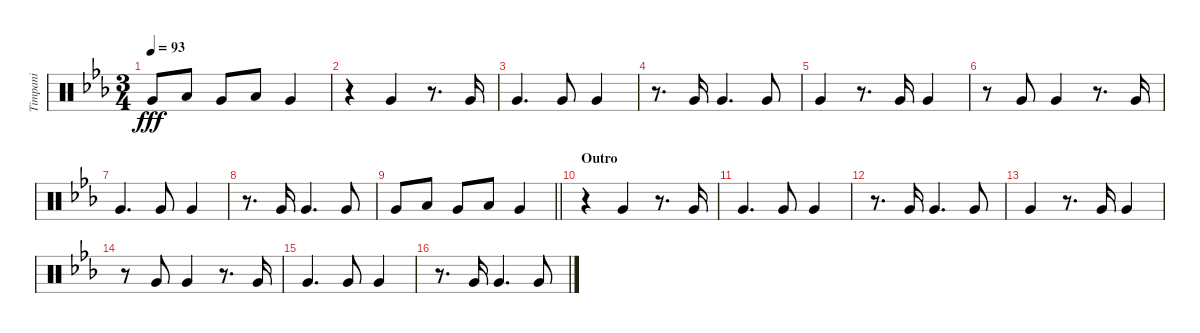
\track ("Timpani" "Timpani") {instrument percussion}
\staff {score}
\articulation defaults
\ts (3 4)
\tempo 93
\clef neutral
\ks cminor "Very Low Tom (hit)".8{dy fff} "Low Floor Tom (hit)".8 "Very Low Tom (hit)".8 "Low Floor Tom (hit)".8 "Very Low Tom (hit)".4
|
r.4 "Very Low Tom (hit)".4 r.8{d} "Very Low Tom (hit)".16 |
"Very Low Tom (hit)".4{d} "Very Low Tom (hit)".8 "Very Low Tom (hit)".4 |
r.8{d} "Very Low Tom (hit)".16 "Very Low Tom (hit)".4{d} "Very Low Tom (hit)".8 |
"Very Low Tom (hit)".4 r.8{d} "Very Low Tom (hit)".16 "Very Low Tom (hit)".4 |
r.8 "Very Low Tom (hit)".8 "Very Low Tom (hit)".4 r.8{d} "Very Low Tom (hit)".16 |
"Very Low Tom (hit)".4{d} "Very Low Tom (hit)".8 "Very Low Tom (hit)".4 |
r.8{d} "Very Low Tom (hit)".16 "Very Low Tom (hit)".4{d} "Very Low Tom (hit)".8 |
\barLineRight lightlight "Very Low Tom (hit)".8 "Low Floor Tom (hit)".8 "Very Low Tom (hit)".8 "Low Floor Tom (hit)".8 "Very Low Tom (hit)".4
|
\section ("" "Outro")
r.4 "Very Low Tom (hit)".4 r.8{d} "Very Low Tom (hit)".16 |
"Very Low Tom (hit)".4{d} "Very Low Tom (hit)".8 "Very Low Tom (hit)".4 |
r.8{d} "Very Low Tom (hit)".16 "Very Low Tom (hit)".4{d} "Very Low Tom (hit)".8 |
"Very Low Tom (hit)".4 r.8{d} "Very Low Tom (hit)".16 "Very Low Tom (hit)".4 |
r.8 "Very Low Tom (hit)".8 "Very Low Tom (hit)".4 r.8{d} "Very Low Tom (hit)".16 |
"Very Low Tom (hit)".4{d} "Very Low Tom (hit)".8 "Very Low Tom (hit)".4 |
r.8{d} "Very Low Tom (hit)".16 "Very Low Tom (hit)".4{d} "Very Low Tom (hit)".8
